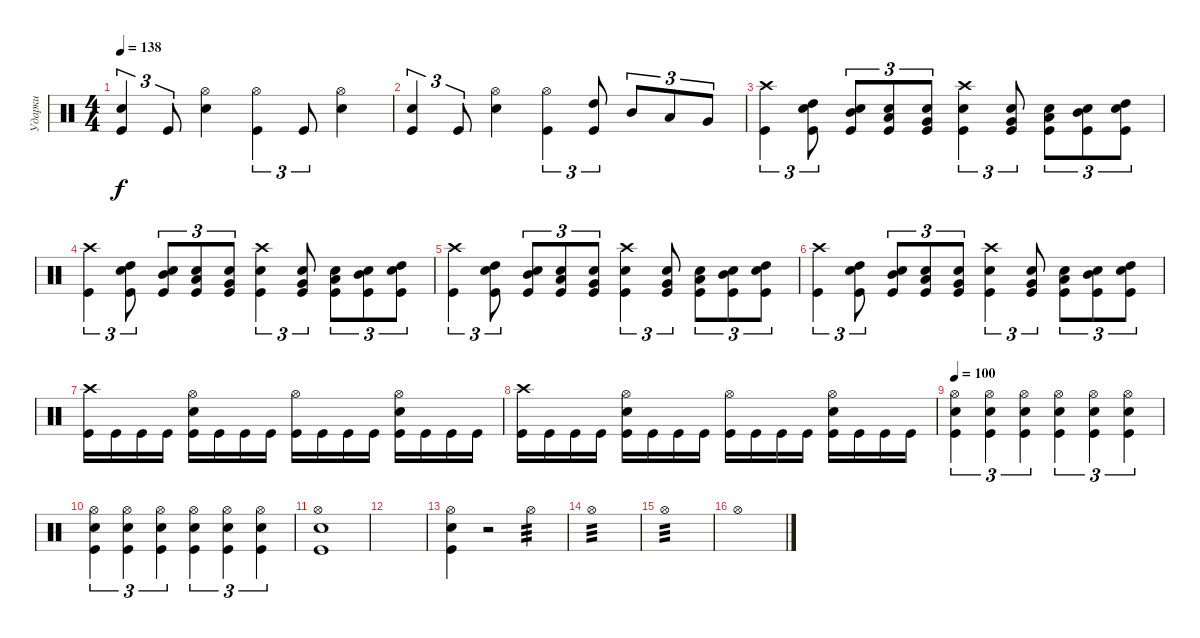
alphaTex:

\track ("Ударки" "Ударки") {instrument percussion}
\staff {score}
\articulation defaults
\ts (4 4)
\tempo 138
\clef neutral
\ks c
("Snare (hit) 2" "Kick (hit)").4{tu (3 2) dy f} "Kick (hit)".8{tu (3 2)} ("Snare (hit) 2" "Hi-Hat (open)").4 ("Kick (hit)" "Hi-Hat (open)").4{tu (3 2)} "Kick (hit)".8{tu (3 2)} ("Snare (hit) 2" "Hi-Hat (open)").4 |
("Snare (hit) 2" "Kick (hit)").4{tu (3 2)} "Kick (hit)".8{tu (3 2)} ("Snare (hit) 2" "Hi-Hat (open)").4 ("Kick (hit)" "Hi-Hat (open)").4{tu (3 2)} ("Kick (hit)" "High Tom (hit)").8{tu (3 2)} "Mid Tom (hit)".8{tu (3 2)} "Low Tom (hit)".8{tu (3 2)} "Very Low Tom (hit)".8{tu (3 2)} |
("Kick (hit)" "Crash high (hit)").4{tu (3 2)} ("Snare (hit) 2" "Kick (hit)" "High Tom (hit)").8{tu (3 2)} ("Snare (hit) 2" "Kick (hit)" "Mid Tom (hit)").8{tu (3 2)} ("Snare (hit) 2" "Kick (hit)" "Low Tom (hit)").8{tu (3 2)} ("Snare (hit) 2" "Kick (hit)" "Very Low Tom (hit)").8{tu (3 2)} ("Snare (hit) 2" "Kick (hit)" "Crash high (hit)").4{tu (3 2)} ("Snare (hit) 2" "Kick (hit)" "Very Low Tom (hit)").8{tu (3 2)} ("Snare (hit) 2" "Kick (hit)" "Low Tom (hit)").8{tu (3 2)} ("Snare (hit) 2" "Kick (hit)" "Mid Tom (hit)").8{tu (3 2)} ("Snare (hit) 2" "Kick (hit)" "High Tom (hit)").8{tu (3 2)} |
("Kick (hit)" "Crash high (hit)").4{tu (3 2)} ("Snare (hit) 2" "Kick (hit)" "High Tom (hit)").8{tu (3 2)} ("Snare (hit) 2" "Kick (hit)" "Mid Tom (hit)").8{tu (3 2)} ("Snare (hit) 2" "Kick (hit)" "Low Tom (hit)").8{tu (3 2)} ("Snare (hit) 2" "Kick (hit)" "Very Low Tom (hit)").8{tu (3 2)} ("Snare (hit) 2" "Kick (hit)" "Crash high (hit)").4{tu (3 2)} ("Snare (hit) 2" "Kick (hit)" "Very Low Tom (hit)").8{tu (3 2)} ("Snare (hit) 2" "Kick (hit)" "Low Tom (hit)").8{tu (3 2)} ("Snare (hit) 2" "Kick (hit)" "Mid Tom (hit)").8{tu (3 2)} ("Snare (hit) 2" "Kick (hit)" "High Tom (hit)").8{tu (3 2)} |
("Kick (hit)" "Crash high (hit)").4{tu (3 2)} ("Snare (hit) 2" "Kick (hit)" "High Tom (hit)").8{tu (3 2)} ("Snare (hit) 2" "Kick (hit)" "Mid Tom (hit)").8{tu (3 2)} ("Snare (hit) 2" "Kick (hit)" "Low Tom (hit)").8{tu (3 2)} ("Snare (hit) 2" "Kick (hit)" "Very Low Tom (hit)").8{tu (3 2)} ("Snare (hit) 2" "Kick (hit)" "Crash high (hit)").4{tu (3 2)} ("Snare (hit) 2" "Kick (hit)" "Very Low Tom (hit)").8{tu (3 2)} ("Snare (hit) 2" "Kick (hit)" "Low Tom (hit)").8{tu (3 2)} ("Snare (hit) 2" "Kick (hit)" "Mid Tom (hit)").8{tu (3 2)} ("Snare (hit) 2" "Kick (hit)" "High Tom (hit)").8{tu (3 2)} |
("Kick (hit)" "Crash high (hit)").4{tu (3 2)} ("Snare (hit) 2" "Kick (hit)" "High Tom (hit)").8{tu (3 2)} ("Snare (hit) 2" "Kick (hit)" "Mid Tom (hit)").8{tu (3 2)} ("Snare (hit) 2" "Kick (hit)" "Low Tom (hit)").8{tu (3 2)} ("Snare (hit) 2" "Kick (hit)" "Very Low Tom (hit)").8{tu (3 2)} ("Snare (hit) 2" "Kick (hit)" "Crash high (hit)").4{tu (3 2)} ("Snare (hit) 2" "Kick (hit)" "Very Low Tom (hit)").8{tu (3 2)} ("Snare (hit) 2" "Kick (hit)" "Low Tom (hit)").8{tu (3 2)} ("Snare (hit) 2" "Kick (hit)" "Mid Tom (hit)").8{tu (3 2)} ("Snare (hit) 2" "Kick (hit)" "High Tom (hit)").8{tu (3 2)} |
("Kick (hit)" "Crash high (hit)").16 "Kick (hit)".16 "Kick (hit)".16 "Kick (hit)".16 ("Kick (hit)" "Snare (hit) 2" "Hi-Hat (open)").16 "Kick (hit)".16 "Kick (hit)".16 "Kick (hit)".16 ("Kick (hit)" "Hi-Hat (open)").16 "Kick (hit)".16 "Kick (hit)".16 "Kick (hit)".16 ("Hi-Hat (open)" "Kick (hit)" "Snare (hit) 2").16 "Kick (hit)".16 "Kick (hit)".16 "Kick (hit)".16 |
("Kick (hit)" "Crash high (hit)").16 "Kick (hit)".16 "Kick (hit)".16 "Kick (hit)".16 ("Kick (hit)" "Snare (hit) 2" "Hi-Hat (open)").16 "Kick (hit)".16 "Kick (hit)".16 "Kick (hit)".16 ("Kick (hit)" "Hi-Hat (open)").16 "Kick (hit)".16 "Kick (hit)".16 "Kick (hit)".16 ("Hi-Hat (open)" "Kick (hit)" "Snare (hit) 2").16 "Kick (hit)".16 "Kick (hit)".16 "Kick (hit)".16 |
\tempo 100
("Kick (hit)" "Snare (hit) 2" "Hi-Hat (open)").4{tu (3 2)} ("Kick (hit)" "Snare (hit) 2" "Hi-Hat (open)").4{tu (3 2)} ("Kick (hit)" "Snare (hit) 2" "Hi-Hat (open)").4{tu (3 2)} ("Kick (hit)" "Snare (hit) 2" "Hi-Hat (open)").4{tu (3 2)} ("Kick (hit)" "Snare (hit) 2" "Hi-Hat (open)").4{tu (3 2)} ("Kick (hit)" "Snare (hit) 2" "Hi-Hat (open)").4{tu (3 2)} |
("Kick (hit)" "Snare (hit) 2" "Hi-Hat (open)").4{tu (3 2)} ("Kick (hit)" "Snare (hit) 2" "Hi-Hat (open)").4{tu (3 2)} ("Kick (hit)" "Snare (hit) 2" "Hi-Hat (open)").4{tu (3 2)} ("Kick (hit)" "Snare (hit) 2" "Hi-Hat (open)").4{tu (3 2)} ("Kick (hit)" "Snare (hit) 2" "Hi-Hat (open)").4{tu (3 2)} ("Kick (hit)" "Snare (hit) 2" "Hi-Hat (open)").4{tu (3 2)} |
("Kick (hit)" "Snare (hit) 2" "Hi-Hat (open)").1 |
|
("Kick (hit)" "Snare (hit) 2" "Hi-Hat (open)").4 r.2{volume 0} "Hi-Hat (open)".4{tp 3 volume 10} |
"Hi-Hat (open)".1{tp 3} |
"Hi-Hat (open)".1{tp 3 volume 1} |
"Hi-Hat (open)".1
